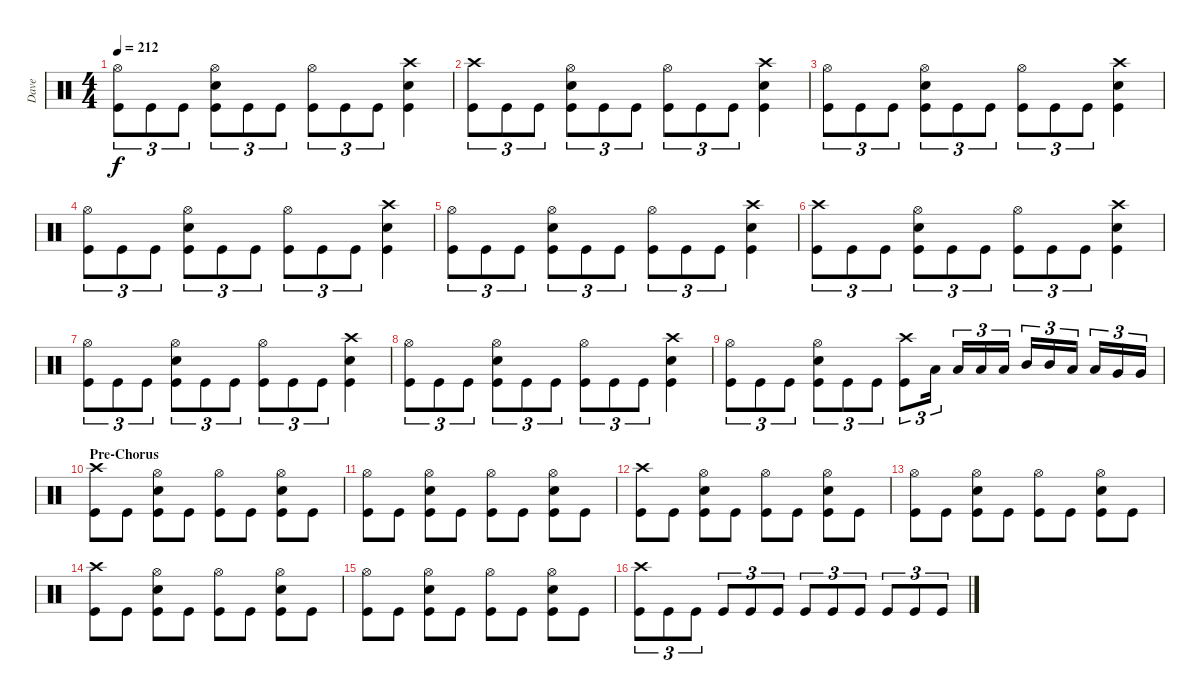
\track ("Dave" "Dave") {instrument percussion}
\staff {score}
\articulation defaults
\ts (4 4)
\tempo 212
\clef neutral
\ks c
("Hi-Hat (open)" "Kick (hit)").8{tu (3 2) dy f} "Kick (hit)".8{tu (3 2)} "Kick (hit)".8{tu (3 2)} ("Hi-Hat (open)" "Snare (hit) 2" "Kick (hit)").8{tu (3 2)} "Kick (hit)".8{tu (3 2)} "Kick (hit)".8{tu (3 2)} ("Hi-Hat (open)" "Kick (hit)").8{tu (3 2)} "Kick (hit)".8{tu (3 2)} "Kick (hit)".8{tu (3 2)} ("Crash high (hit)" "Snare (hit) 2" "Kick (hit)").4 |
("Crash high (hit)" "Kick (hit)").8{tu (3 2)} "Kick (hit)".8{tu (3 2)} "Kick (hit)".8{tu (3 2)} ("Hi-Hat (open)" "Snare (hit) 2" "Kick (hit)").8{tu (3 2)} "Kick (hit)".8{tu (3 2)} "Kick (hit)".8{tu (3 2)} ("Hi-Hat (open)" "Kick (hit)").8{tu (3 2)} "Kick (hit)".8{tu (3 2)} "Kick (hit)".8{tu (3 2)} ("Crash high (hit)" "Snare (hit) 2" "Kick (hit)").4 |
("Hi-Hat (open)" "Kick (hit)").8{tu (3 2)} "Kick (hit)".8{tu (3 2)} "Kick (hit)".8{tu (3 2)} ("Hi-Hat (open)" "Snare (hit) 2" "Kick (hit)").8{tu (3 2)} "Kick (hit)".8{tu (3 2)} "Kick (hit)".8{tu (3 2)} ("Hi-Hat (open)" "Kick (hit)").8{tu (3 2)} "Kick (hit)".8{tu (3 2)} "Kick (hit)".8{tu (3 2)} ("Crash high (hit)" "Snare (hit) 2" "Kick (hit)").4 |
("Hi-Hat (open)" "Kick (hit)").8{tu (3 2)} "Kick (hit)".8{tu (3 2)} "Kick (hit)".8{tu (3 2)} ("Hi-Hat (open)" "Snare (hit) 2" "Kick (hit)").8{tu (3 2)} "Kick (hit)".8{tu (3 2)} "Kick (hit)".8{tu (3 2)} ("Hi-Hat (open)" "Kick (hit)").8{tu (3 2)} "Kick (hit)".8{tu (3 2)} "Kick (hit)".8{tu (3 2)} ("Crash high (hit)" "Snare (hit) 2" "Kick (hit)").4 |
("Hi-Hat (open)" "Kick (hit)").8{tu (3 2)} "Kick (hit)".8{tu (3 2)} "Kick (hit)".8{tu (3 2)} ("Hi-Hat (open)" "Snare (hit) 2" "Kick (hit)").8{tu (3 2)} "Kick (hit)".8{tu (3 2)} "Kick (hit)".8{tu (3 2)} ("Hi-Hat (open)" "Kick (hit)").8{tu (3 2)} "Kick (hit)".8{tu (3 2)} "Kick (hit)".8{tu (3 2)} ("Crash high (hit)" "Snare (hit) 2" "Kick (hit)").4 |
("Crash high (hit)" "Kick (hit)").8{tu (3 2)} "Kick (hit)".8{tu (3 2)} "Kick (hit)".8{tu (3 2)} ("Hi-Hat (open)" "Snare (hit) 2" "Kick (hit)").8{tu (3 2)} "Kick (hit)".8{tu (3 2)} "Kick (hit)".8{tu (3 2)} ("Hi-Hat (open)" "Kick (hit)").8{tu (3 2)} "Kick (hit)".8{tu (3 2)} "Kick (hit)".8{tu (3 2)} ("Crash high (hit)" "Snare (hit) 2" "Kick (hit)").4 |
("Hi-Hat (open)" "Kick (hit)").8{tu (3 2)} "Kick (hit)".8{tu (3 2)} "Kick (hit)".8{tu (3 2)} ("Hi-Hat (open)" "Snare (hit) 2" "Kick (hit)").8{tu (3 2)} "Kick (hit)".8{tu (3 2)} "Kick (hit)".8{tu (3 2)} ("Hi-Hat (open)" "Kick (hit)").8{tu (3 2)} "Kick (hit)".8{tu (3 2)} "Kick (hit)".8{tu (3 2)} ("Crash high (hit)" "Snare (hit) 2" "Kick (hit)").4 |
("Hi-Hat (open)" "Kick (hit)").8{tu (3 2)} "Kick (hit)".8{tu (3 2)} "Kick (hit)".8{tu (3 2)} ("Hi-Hat (open)" "Snare (hit) 2" "Kick (hit)").8{tu (3 2)} "Kick (hit)".8{tu (3 2)} "Kick (hit)".8{tu (3 2)} ("Hi-Hat (open)" "Kick (hit)").8{tu (3 2)} "Kick (hit)".8{tu (3 2)} "Kick (hit)".8{tu (3 2)} ("Crash high (hit)" "Snare (hit) 2" "Kick (hit)").4 |
("Hi-Hat (open)" "Kick (hit)").8{tu (3 2)} "Kick (hit)".8{tu (3 2)} "Kick (hit)".8{tu (3 2)} ("Hi-Hat (open)" "Snare (hit) 2" "Kick (hit)").8{tu (3 2)} "Kick (hit)".8{tu (3 2)} "Kick (hit)".8{tu (3 2)} ("Crash high (hit)" "Kick (hit)").8{tu (3 2)} "Low Tom (hit)".16{tu (3 2)} "Low Tom (hit)".16{tu (3 2)} "Low Tom (hit)".16{tu (3 2)} "Low Tom (hit)".16{tu (3 2)} "Mid Tom (hit)".16{tu (3 2)} "Mid Tom (hit)".16{tu (3 2)} "Low Tom (hit)".16{tu (3 2)} "Low Tom (hit)".16{tu (3 2)} "Very Low Tom (hit)".16{tu (3 2)} "Very Low Tom (hit)".16{tu (3 2)} |
\section ("" "Pre-Chorus")
("Crash high (hit)" "Kick (hit)").8 "Kick (hit)".8 ("Hi-Hat (open)" "Snare (hit) 2" "Kick (hit)").8 "Kick (hit)".8 ("Hi-Hat (open)" "Kick (hit)").8 "Kick (hit)".8 ("Hi-Hat (open)" "Snare (hit) 2" "Kick (hit)").8 "Kick (hit)".8 |
("Hi-Hat (open)" "Kick (hit)").8 "Kick (hit)".8 ("Hi-Hat (open)" "Snare (hit) 2" "Kick (hit)").8 "Kick (hit)".8 ("Hi-Hat (open)" "Kick (hit)").8 "Kick (hit)".8 ("Hi-Hat (open)" "Snare (hit) 2" "Kick (hit)").8 "Kick (hit)".8 |
("Crash high (hit)" "Kick (hit)").8 "Kick (hit)".8 ("Hi-Hat (open)" "Snare (hit) 2" "Kick (hit)").8 "Kick (hit)".8 ("Hi-Hat (open)" "Kick (hit)").8 "Kick (hit)".8 ("Hi-Hat (open)" "Snare (hit) 2" "Kick (hit)").8 "Kick (hit)".8 |
("Hi-Hat (open)" "Kick (hit)").8 "Kick (hit)".8 ("Hi-Hat (open)" "Snare (hit) 2" "Kick (hit)").8 "Kick (hit)".8 ("Hi-Hat (open)" "Kick (hit)").8 "Kick (hit)".8 ("Hi-Hat (open)" "Snare (hit) 2" "Kick (hit)").8 "Kick (hit)".8 |
("Crash high (hit)" "Kick (hit)").8 "Kick (hit)".8 ("Hi-Hat (open)" "Snare (hit) 2" "Kick (hit)").8 "Kick (hit)".8 ("Hi-Hat (open)" "Kick (hit)").8 "Kick (hit)".8 ("Hi-Hat (open)" "Snare (hit) 2" "Kick (hit)").8 "Kick (hit)".8 |
("Hi-Hat (open)" "Kick (hit)").8 "Kick (hit)".8 ("Hi-Hat (open)" "Snare (hit) 2" "Kick (hit)").8 "Kick (hit)".8 ("Hi-Hat (open)" "Kick (hit)").8 "Kick (hit)".8 ("Hi-Hat (open)" "Snare (hit) 2" "Kick (hit)").8 "Kick (hit)".8 |
("Crash high (hit)" "Kick (hit)").8{tu (3 2)} "Kick (hit)".8{tu (3 2)} "Kick (hit)".8{tu (3 2)} "Kick (hit)".8{tu (3 2)} "Kick (hit)".8{tu (3 2)} "Kick (hit)".8{tu (3 2)} "Kick (hit)".8{tu (3 2)} "Kick (hit)".8{tu (3 2)} "Kick (hit)".8{tu (3 2)} "Kick (hit)".8{tu (3 2)} "Kick (hit)".8{tu (3 2)} "Kick (hit)".8{tu (3 2)}
